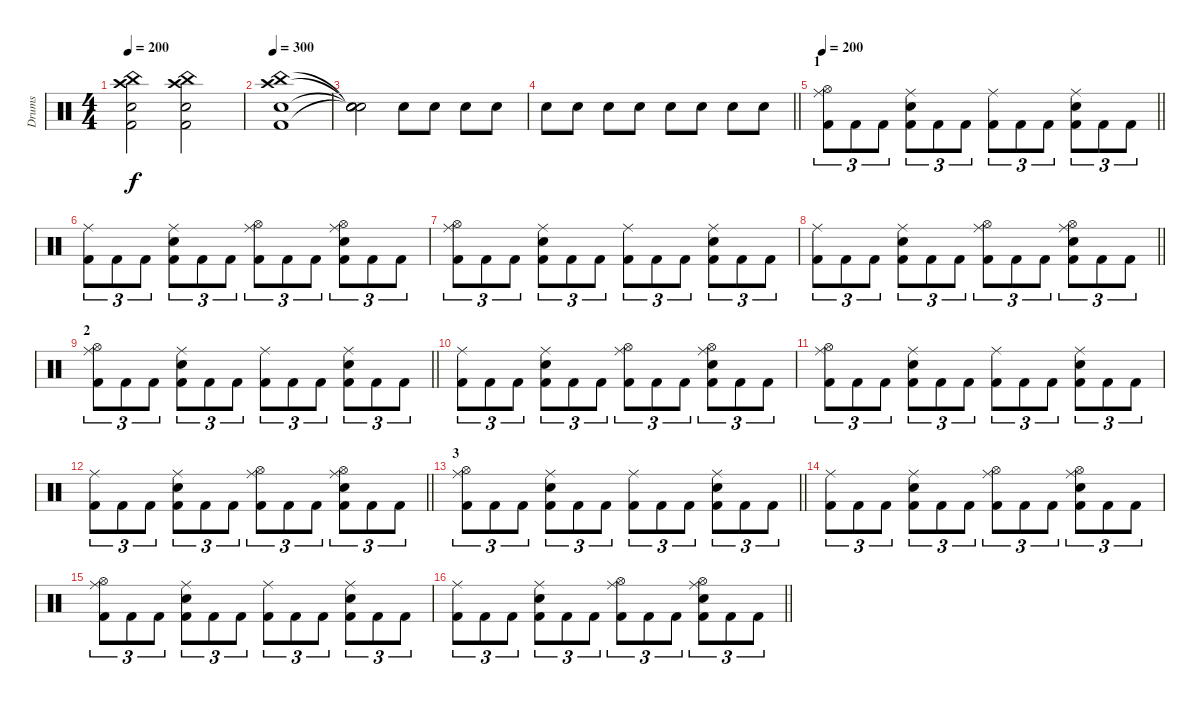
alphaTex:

\track ("Drums" "Drums") {instrument percussion}
\staff {score}
\articulation defaults
\ts (4 4)
\tempo 200
\clef neutral
\ks c
("Kick (hit) 2" "Electric Snare (hit)" "Crash high (hit)" "China (hit)").2{dy f} ("China (hit)" "Crash high (hit)" "Kick (hit) 2" "Electric Snare (hit)").2 |
\tempo 300
("Electric Snare (hit)" "Kick (hit) 2" "Crash high (hit)" "China (hit)").1 |
("Snare (hit)"{t} "Snare (hit)"{t} "Snare (hit)"{t} "Snare (hit)"{t}).2 "Electric Snare (hit)".8 "Electric Snare (hit)".8 "Electric Snare (hit)".8 "Electric Snare (hit)".8 |
\barLineRight lightlight "Electric Snare (hit)".8 "Electric Snare (hit)".8 "Electric Snare (hit)".8 "Electric Snare (hit)".8 "Electric Snare (hit)".8 "Electric Snare (hit)".8 "Electric Snare (hit)".8 "Electric Snare (hit)".8
|
\section ("" "1")
\tempo 200
\barLineRight lightlight
("Ride (middle)" "Hi-Hat (open)" "Kick (hit) 2").8{tu (3 2)} "Kick (hit) 2".8{tu (3 2)} "Kick (hit) 2".8{tu (3 2)} ("Electric Snare (hit)" "Ride (middle)" "Kick (hit) 2").8{tu (3 2)} "Kick (hit) 2".8{tu (3 2)} "Kick (hit) 2".8{tu (3 2)} ("Ride (middle)" "Kick (hit) 2").8{tu (3 2)} "Kick (hit) 2".8{tu (3 2)} "Kick (hit) 2".8{tu (3 2)} ("Kick (hit) 2" "Electric Snare (hit)" "Ride (middle)").8{tu (3 2)} "Kick (hit) 2".8{tu (3 2)} "Kick (hit) 2".8{tu (3 2)} |
("Kick (hit) 2" "Ride (middle)").8{tu (3 2)} "Kick (hit) 2".8{tu (3 2)} "Kick (hit) 2".8{tu (3 2)} ("Kick (hit) 2" "Electric Snare (hit)" "Ride (middle)").8{tu (3 2)} "Kick (hit) 2".8{tu (3 2)} "Kick (hit) 2".8{tu (3 2)} ("Kick (hit) 2" "Ride (middle)" "Hi-Hat (open)").8{tu (3 2)} "Kick (hit) 2".8{tu (3 2)} "Kick (hit) 2".8{tu (3 2)} ("Kick (hit) 2" "Electric Snare (hit)" "Ride (middle)" "Hi-Hat (open)").8{tu (3 2)} "Kick (hit) 2".8{tu (3 2)} "Kick (hit) 2".8{tu (3 2)} |
("Ride (middle)" "Hi-Hat (open)" "Kick (hit) 2").8{tu (3 2)} "Kick (hit) 2".8{tu (3 2)} "Kick (hit) 2".8{tu (3 2)} ("Electric Snare (hit)" "Ride (middle)" "Kick (hit) 2").8{tu (3 2)} "Kick (hit) 2".8{tu (3 2)} "Kick (hit) 2".8{tu (3 2)} ("Ride (middle)" "Kick (hit) 2").8{tu (3 2)} "Kick (hit) 2".8{tu (3 2)} "Kick (hit) 2".8{tu (3 2)} ("Kick (hit) 2" "Electric Snare (hit)" "Ride (middle)").8{tu (3 2)} "Kick (hit) 2".8{tu (3 2)} "Kick (hit) 2".8{tu (3 2)} |
\barLineRight lightlight
("Kick (hit) 2" "Ride (middle)").8{tu (3 2)} "Kick (hit) 2".8{tu (3 2)} "Kick (hit) 2".8{tu (3 2)} ("Kick (hit) 2" "Electric Snare (hit)" "Ride (middle)").8{tu (3 2)} "Kick (hit) 2".8{tu (3 2)} "Kick (hit) 2".8{tu (3 2)} ("Kick (hit) 2" "Ride (middle)" "Hi-Hat (open)").8{tu (3 2)} "Kick (hit) 2".8{tu (3 2)} "Kick (hit) 2".8{tu (3 2)} ("Kick (hit) 2" "Electric Snare (hit)" "Ride (middle)" "Hi-Hat (open)").8{tu (3 2)} "Kick (hit) 2".8{tu (3 2)} "Kick (hit) 2".8{tu (3 2)} |
\section ("" "2")
\barLineRight lightlight
("Ride (middle)" "Hi-Hat (open)" "Kick (hit) 2").8{tu (3 2)} "Kick (hit) 2".8{tu (3 2)} "Kick (hit) 2".8{tu (3 2)} ("Electric Snare (hit)" "Ride (middle)" "Kick (hit) 2").8{tu (3 2)} "Kick (hit) 2".8{tu (3 2)} "Kick (hit) 2".8{tu (3 2)} ("Ride (middle)" "Kick (hit) 2").8{tu (3 2)} "Kick (hit) 2".8{tu (3 2)} "Kick (hit) 2".8{tu (3 2)} ("Kick (hit) 2" "Electric Snare (hit)" "Ride (middle)").8{tu (3 2)} "Kick (hit) 2".8{tu (3 2)} "Kick (hit) 2".8{tu (3 2)} |
("Kick (hit) 2" "Ride (middle)").8{tu (3 2)} "Kick (hit) 2".8{tu (3 2)} "Kick (hit) 2".8{tu (3 2)} ("Kick (hit) 2" "Electric Snare (hit)" "Ride (middle)").8{tu (3 2)} "Kick (hit) 2".8{tu (3 2)} "Kick (hit) 2".8{tu (3 2)} ("Kick (hit) 2" "Ride (middle)" "Hi-Hat (open)").8{tu (3 2)} "Kick (hit) 2".8{tu (3 2)} "Kick (hit) 2".8{tu (3 2)} ("Kick (hit) 2" "Electric Snare (hit)" "Ride (middle)" "Hi-Hat (open)").8{tu (3 2)} "Kick (hit) 2".8{tu (3 2)} "Kick (hit) 2".8{tu (3 2)} |
("Ride (middle)" "Hi-Hat (open)" "Kick (hit) 2").8{tu (3 2)} "Kick (hit) 2".8{tu (3 2)} "Kick (hit) 2".8{tu (3 2)} ("Electric Snare (hit)" "Ride (middle)" "Kick (hit) 2").8{tu (3 2)} "Kick (hit) 2".8{tu (3 2)} "Kick (hit) 2".8{tu (3 2)} ("Ride (middle)" "Kick (hit) 2").8{tu (3 2)} "Kick (hit) 2".8{tu (3 2)} "Kick (hit) 2".8{tu (3 2)} ("Kick (hit) 2" "Electric Snare (hit)" "Ride (middle)").8{tu (3 2)} "Kick (hit) 2".8{tu (3 2)} "Kick (hit) 2".8{tu (3 2)} |
\barLineRight lightlight
("Kick (hit) 2" "Ride (middle)").8{tu (3 2)} "Kick (hit) 2".8{tu (3 2)} "Kick (hit) 2".8{tu (3 2)} ("Kick (hit) 2" "Electric Snare (hit)" "Ride (middle)").8{tu (3 2)} "Kick (hit) 2".8{tu (3 2)} "Kick (hit) 2".8{tu (3 2)} ("Kick (hit) 2" "Ride (middle)" "Hi-Hat (open)").8{tu (3 2)} "Kick (hit) 2".8{tu (3 2)} "Kick (hit) 2".8{tu (3 2)} ("Kick (hit) 2" "Electric Snare (hit)" "Ride (middle)" "Hi-Hat (open)").8{tu (3 2)} "Kick (hit) 2".8{tu (3 2)} "Kick (hit) 2".8{tu (3 2)} |
\section ("" "3")
\barLineRight lightlight
("Ride (middle)" "Hi-Hat (open)" "Kick (hit) 2").8{tu (3 2)} "Kick (hit) 2".8{tu (3 2)} "Kick (hit) 2".8{tu (3 2)} ("Electric Snare (hit)" "Ride (middle)" "Kick (hit) 2").8{tu (3 2)} "Kick (hit) 2".8{tu (3 2)} "Kick (hit) 2".8{tu (3 2)} ("Ride (middle)" "Kick (hit) 2").8{tu (3 2)} "Kick (hit) 2".8{tu (3 2)} "Kick (hit) 2".8{tu (3 2)} ("Kick (hit) 2" "Electric Snare (hit)" "Ride (middle)").8{tu (3 2)} "Kick (hit) 2".8{tu (3 2)} "Kick (hit) 2".8{tu (3 2)} |
("Kick (hit) 2" "Ride (middle)").8{tu (3 2)} "Kick (hit) 2".8{tu (3 2)} "Kick (hit) 2".8{tu (3 2)} ("Kick (hit) 2" "Electric Snare (hit)" "Ride (middle)").8{tu (3 2)} "Kick (hit) 2".8{tu (3 2)} "Kick (hit) 2".8{tu (3 2)} ("Kick (hit) 2" "Ride (middle)" "Hi-Hat (open)").8{tu (3 2)} "Kick (hit) 2".8{tu (3 2)} "Kick (hit) 2".8{tu (3 2)} ("Kick (hit) 2" "Electric Snare (hit)" "Ride (middle)" "Hi-Hat (open)").8{tu (3 2)} "Kick (hit) 2".8{tu (3 2)} "Kick (hit) 2".8{tu (3 2)} |
("Ride (middle)" "Hi-Hat (open)" "Kick (hit) 2").8{tu (3 2)} "Kick (hit) 2".8{tu (3 2)} "Kick (hit) 2".8{tu (3 2)} ("Electric Snare (hit)" "Ride (middle)" "Kick (hit) 2").8{tu (3 2)} "Kick (hit) 2".8{tu (3 2)} "Kick (hit) 2".8{tu (3 2)} ("Ride (middle)" "Kick (hit) 2").8{tu (3 2)} "Kick (hit) 2".8{tu (3 2)} "Kick (hit) 2".8{tu (3 2)} ("Kick (hit) 2" "Electric Snare (hit)" "Ride (middle)").8{tu (3 2)} "Kick (hit) 2".8{tu (3 2)} "Kick (hit) 2".8{tu (3 2)} |
\barLineRight lightlight
("Kick (hit) 2" "Ride (middle)").8{tu (3 2)} "Kick (hit) 2".8{tu (3 2)} "Kick (hit) 2".8{tu (3 2)} ("Kick (hit) 2" "Electric Snare (hit)" "Ride (middle)").8{tu (3 2)} "Kick (hit) 2".8{tu (3 2)} "Kick (hit) 2".8{tu (3 2)} ("Kick (hit) 2" "Ride (middle)" "Hi-Hat (open)").8{tu (3 2)} "Kick (hit) 2".8{tu (3 2)} "Kick (hit) 2".8{tu (3 2)} ("Kick (hit) 2" "Electric Snare (hit)" "Ride (middle)" "Hi-Hat (open)").8{tu (3 2)} "Kick (hit) 2".8{tu (3 2)} "Kick (hit) 2".8{tu (3 2)}
